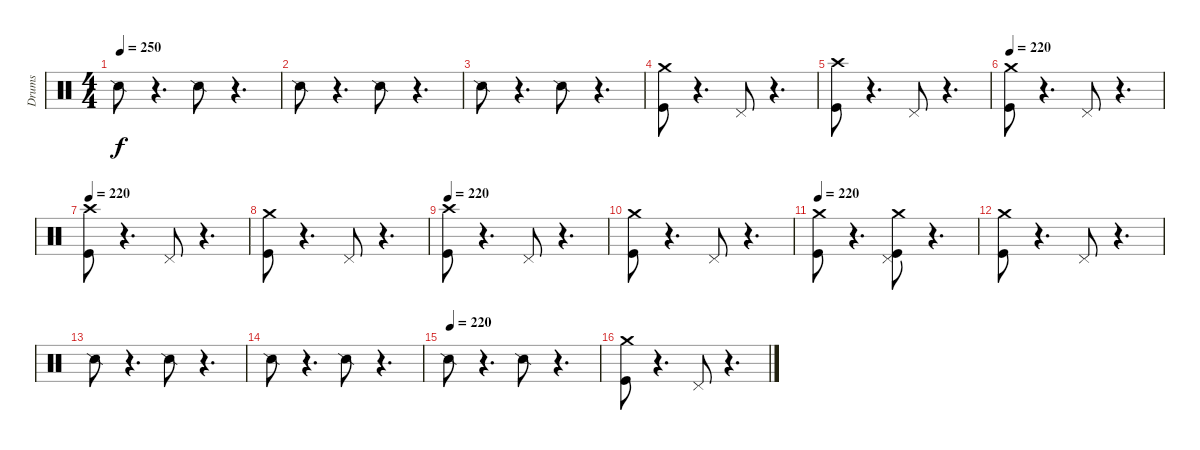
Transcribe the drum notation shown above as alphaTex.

\track ("Drums" "Drums") {instrument percussion}
\staff {score}
\articulation defaults
\ts (4 4)
\tempo 250
\tempo 220
\tempo 250
\clef neutral
\ks c "Snare (side stick) 2".8{dy f}
r.4{d} "Snare (side stick) 2".8 r.4{d} |
"Snare (side stick) 2".8 r.4{d} "Snare (side stick) 2".8 r.4{d} |
"Snare (side stick) 2".8 r.4{d} "Snare (side stick) 2".8 r.4{d} |
("Crash medium (hit)" "Kick (hit)").8 r.4{d} "Pedal Hi-Hat (hit)".8 r.4{d} |
("Crash high (hit)" "Kick (hit)").8 r.4{d} "Pedal Hi-Hat (hit)".8 r.4{d} |
\tempo 220
("Crash medium (hit)" "Kick (hit)").8 r.4{d} "Pedal Hi-Hat (hit)".8 r.4{d} |
\tempo 220
("Crash high (hit)" "Kick (hit)").8 r.4{d} "Pedal Hi-Hat (hit)".8 r.4{d} |
("Crash medium (hit)" "Kick (hit)").8 r.4{d} "Pedal Hi-Hat (hit)".8 r.4{d} |
\tempo 220
("Crash high (hit)" "Kick (hit)").8 r.4{d} "Pedal Hi-Hat (hit)".8 r.4{d} |
("Crash medium (hit)" "Kick (hit)").8 r.4{d} "Pedal Hi-Hat (hit)".8 r.4{d} |
\tempo 220
("Crash medium (hit)" "Kick (hit)").8 r.4{d} ("Pedal Hi-Hat (hit)" "Crash medium (hit)" "Kick (hit)").8 r.4{d} |
("Crash medium (hit)" "Kick (hit)").8 r.4{d} "Pedal Hi-Hat (hit)".8 r.4{d} |
"Snare (side stick) 2".8 r.4{d} "Snare (side stick) 2".8 r.4{d} |
"Snare (side stick) 2".8 r.4{d} "Snare (side stick) 2".8 r.4{d} |
\tempo (220)
"Snare (side stick) 2".8 r.4{d} "Snare (side stick) 2".8 r.4{d} |
("Crash medium (hit)" "Kick (hit)").8 r.4{d} "Pedal Hi-Hat (hit)".8 r.4{d}
